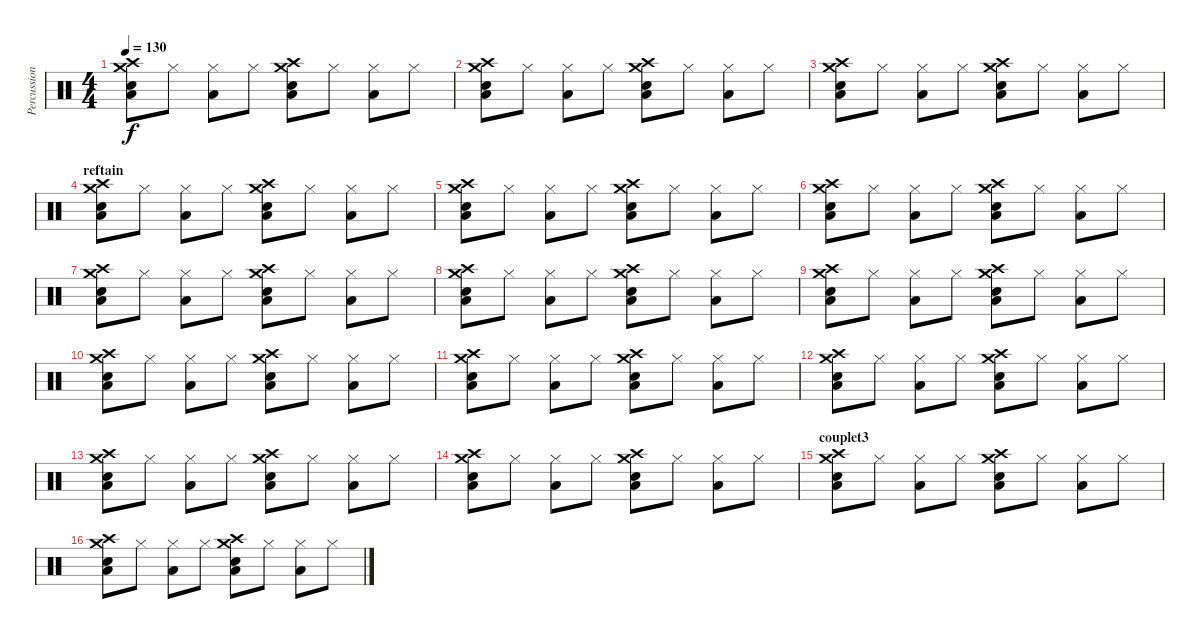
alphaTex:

\track ("Percussions" "Percussion") {instrument percussion}
\staff {score}
\articulation defaults
\ts (4 4)
\tempo 130
\clef neutral
\ks c
("Low Floor Tom (hit)" "Snare (hit) 2" "Crash high (hit)" "Crash medium (hit)").8{dy f} "Hi-Hat (closed)".8 ("Low Floor Tom (hit)" "Hi-Hat (closed)").8 "Hi-Hat (closed)".8 ("Low Floor Tom (hit)" "Snare (hit) 2" "Crash high (hit)" "Crash medium (hit)").8 "Hi-Hat (closed)".8 ("Low Floor Tom (hit)" "Hi-Hat (closed)").8 "Hi-Hat (closed)".8 |
("Low Floor Tom (hit)" "Snare (hit) 2" "Crash high (hit)" "Crash medium (hit)").8 "Hi-Hat (closed)".8 ("Low Floor Tom (hit)" "Hi-Hat (closed)").8 "Hi-Hat (closed)".8 ("Low Floor Tom (hit)" "Snare (hit) 2" "Crash high (hit)" "Crash medium (hit)").8 "Hi-Hat (closed)".8 ("Low Floor Tom (hit)" "Hi-Hat (closed)").8 "Hi-Hat (closed)".8 |
("Low Floor Tom (hit)" "Snare (hit) 2" "Crash high (hit)" "Crash medium (hit)").8 "Hi-Hat (closed)".8 ("Low Floor Tom (hit)" "Hi-Hat (closed)").8 "Hi-Hat (closed)".8 ("Low Floor Tom (hit)" "Snare (hit) 2" "Crash high (hit)" "Crash medium (hit)").8 "Hi-Hat (closed)".8 ("Low Floor Tom (hit)" "Hi-Hat (closed)").8 "Hi-Hat (closed)".8 |
\section ("" "reftain")
("Low Floor Tom (hit)" "Snare (hit) 2" "Crash high (hit)" "Crash medium (hit)").8 "Hi-Hat (closed)".8 ("Low Floor Tom (hit)" "Hi-Hat (closed)").8 "Hi-Hat (closed)".8 ("Low Floor Tom (hit)" "Snare (hit) 2" "Crash high (hit)" "Crash medium (hit)").8 "Hi-Hat (closed)".8 ("Low Floor Tom (hit)" "Hi-Hat (closed)").8 "Hi-Hat (closed)".8 |
("Low Floor Tom (hit)" "Snare (hit) 2" "Crash high (hit)" "Crash medium (hit)").8 "Hi-Hat (closed)".8 ("Low Floor Tom (hit)" "Hi-Hat (closed)").8 "Hi-Hat (closed)".8 ("Low Floor Tom (hit)" "Snare (hit) 2" "Crash high (hit)" "Crash medium (hit)").8 "Hi-Hat (closed)".8 ("Low Floor Tom (hit)" "Hi-Hat (closed)").8 "Hi-Hat (closed)".8 |
("Low Floor Tom (hit)" "Snare (hit) 2" "Crash high (hit)" "Crash medium (hit)").8 "Hi-Hat (closed)".8 ("Low Floor Tom (hit)" "Hi-Hat (closed)").8 "Hi-Hat (closed)".8 ("Low Floor Tom (hit)" "Snare (hit) 2" "Crash high (hit)" "Crash medium (hit)").8 "Hi-Hat (closed)".8 ("Low Floor Tom (hit)" "Hi-Hat (closed)").8 "Hi-Hat (closed)".8 |
("Low Floor Tom (hit)" "Snare (hit) 2" "Crash high (hit)" "Crash medium (hit)").8 "Hi-Hat (closed)".8 ("Low Floor Tom (hit)" "Hi-Hat (closed)").8 "Hi-Hat (closed)".8 ("Low Floor Tom (hit)" "Snare (hit) 2" "Crash high (hit)" "Crash medium (hit)").8 "Hi-Hat (closed)".8 ("Low Floor Tom (hit)" "Hi-Hat (closed)").8 "Hi-Hat (closed)".8 |
("Low Floor Tom (hit)" "Snare (hit) 2" "Crash high (hit)" "Crash medium (hit)").8 "Hi-Hat (closed)".8 ("Low Floor Tom (hit)" "Hi-Hat (closed)").8 "Hi-Hat (closed)".8 ("Low Floor Tom (hit)" "Snare (hit) 2" "Crash high (hit)" "Crash medium (hit)").8 "Hi-Hat (closed)".8 ("Low Floor Tom (hit)" "Hi-Hat (closed)").8 "Hi-Hat (closed)".8 |
("Low Floor Tom (hit)" "Snare (hit) 2" "Crash high (hit)" "Crash medium (hit)").8 "Hi-Hat (closed)".8 ("Low Floor Tom (hit)" "Hi-Hat (closed)").8 "Hi-Hat (closed)".8 ("Low Floor Tom (hit)" "Snare (hit) 2" "Crash high (hit)" "Crash medium (hit)").8 "Hi-Hat (closed)".8 ("Low Floor Tom (hit)" "Hi-Hat (closed)").8 "Hi-Hat (closed)".8 |
("Low Floor Tom (hit)" "Snare (hit) 2" "Crash high (hit)" "Crash medium (hit)").8 "Hi-Hat (closed)".8 ("Low Floor Tom (hit)" "Hi-Hat (closed)").8 "Hi-Hat (closed)".8 ("Low Floor Tom (hit)" "Snare (hit) 2" "Crash high (hit)" "Crash medium (hit)").8 "Hi-Hat (closed)".8 ("Low Floor Tom (hit)" "Hi-Hat (closed)").8 "Hi-Hat (closed)".8 |
("Low Floor Tom (hit)" "Snare (hit) 2" "Crash high (hit)" "Crash medium (hit)").8 "Hi-Hat (closed)".8 ("Low Floor Tom (hit)" "Hi-Hat (closed)").8 "Hi-Hat (closed)".8 ("Low Floor Tom (hit)" "Snare (hit) 2" "Crash high (hit)" "Crash medium (hit)").8 "Hi-Hat (closed)".8 ("Low Floor Tom (hit)" "Hi-Hat (closed)").8 "Hi-Hat (closed)".8 |
("Low Floor Tom (hit)" "Snare (hit) 2" "Crash high (hit)" "Crash medium (hit)").8 "Hi-Hat (closed)".8 ("Low Floor Tom (hit)" "Hi-Hat (closed)").8 "Hi-Hat (closed)".8 ("Low Floor Tom (hit)" "Snare (hit) 2" "Crash high (hit)" "Crash medium (hit)").8 "Hi-Hat (closed)".8 ("Low Floor Tom (hit)" "Hi-Hat (closed)").8 "Hi-Hat (closed)".8 |
("Low Floor Tom (hit)" "Snare (hit) 2" "Crash high (hit)" "Crash medium (hit)").8 "Hi-Hat (closed)".8 ("Low Floor Tom (hit)" "Hi-Hat (closed)").8 "Hi-Hat (closed)".8 ("Low Floor Tom (hit)" "Snare (hit) 2" "Crash high (hit)" "Crash medium (hit)").8 "Hi-Hat (closed)".8 ("Low Floor Tom (hit)" "Hi-Hat (closed)").8 "Hi-Hat (closed)".8 |
("Low Floor Tom (hit)" "Snare (hit) 2" "Crash high (hit)" "Crash medium (hit)").8 "Hi-Hat (closed)".8 ("Low Floor Tom (hit)" "Hi-Hat (closed)").8 "Hi-Hat (closed)".8 ("Low Floor Tom (hit)" "Snare (hit) 2" "Crash high (hit)" "Crash medium (hit)").8 "Hi-Hat (closed)".8 ("Low Floor Tom (hit)" "Hi-Hat (closed)").8 "Hi-Hat (closed)".8 |
\section ("" "couplet3")
("Low Floor Tom (hit)" "Snare (hit) 2" "Crash high (hit)" "Crash medium (hit)").8 "Hi-Hat (closed)".8 ("Low Floor Tom (hit)" "Hi-Hat (closed)").8 "Hi-Hat (closed)".8 ("Low Floor Tom (hit)" "Snare (hit) 2" "Crash high (hit)" "Crash medium (hit)").8 "Hi-Hat (closed)".8 ("Low Floor Tom (hit)" "Hi-Hat (closed)").8 "Hi-Hat (closed)".8 |
("Low Floor Tom (hit)" "Snare (hit) 2" "Crash high (hit)" "Crash medium (hit)").8 "Hi-Hat (closed)".8 ("Low Floor Tom (hit)" "Hi-Hat (closed)").8 "Hi-Hat (closed)".8 ("Low Floor Tom (hit)" "Snare (hit) 2" "Crash high (hit)" "Crash medium (hit)").8 "Hi-Hat (closed)".8 ("Low Floor Tom (hit)" "Hi-Hat (closed)").8 "Hi-Hat (closed)".8
